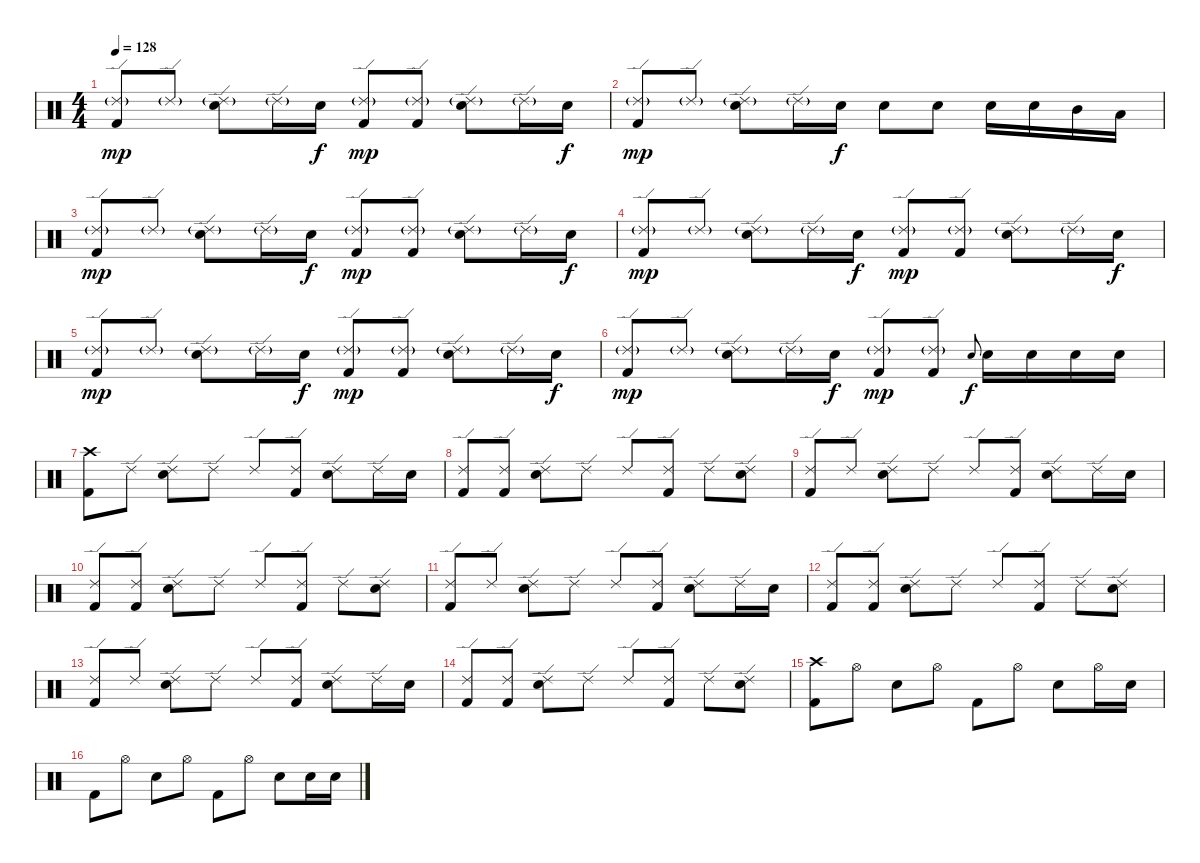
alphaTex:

\track "" {solo instrument percussion}
\staff {score}
\articulation defaults
\ts (4 4)
\tempo 128
\clef neutral
\ks c
("Ride (edge) 2"{g} "Kick (hit) 2").8{dy mp} "Ride (edge) 2"{g}.8 ("Ride (edge) 2"{g} "Snare (hit) 2").8 "Ride (edge) 2"{g}.16 "Snare (hit) 2".16{dy f} ("Ride (edge) 2"{g} "Kick (hit) 2").8{dy mp} ("Ride (edge) 2"{g} "Kick (hit) 2").8 ("Ride (edge) 2"{g} "Snare (hit) 2").8 "Ride (edge) 2"{g}.16 "Snare (hit) 2".16{dy f} |
("Ride (edge) 2"{g} "Kick (hit) 2").8{dy mp} "Ride (edge) 2"{g}.8 ("Ride (edge) 2"{g} "Snare (hit) 2").8 "Ride (edge) 2"{g}.16 "Snare (hit) 2".16{dy f} "Snare (hit) 2".8 "Snare (hit) 2".8 "Snare (hit) 2".16 "Snare (hit) 2".16 "Mid Tom (hit)".16 "Low Tom (hit)".16 |
("Ride (edge) 2"{g} "Kick (hit) 2").8{dy mp} "Ride (edge) 2"{g}.8 ("Ride (edge) 2"{g} "Snare (hit) 2").8 "Ride (edge) 2"{g}.16 "Snare (hit) 2".16{dy f} ("Ride (edge) 2"{g} "Kick (hit) 2").8{dy mp} ("Ride (edge) 2"{g} "Kick (hit) 2").8 ("Ride (edge) 2"{g} "Snare (hit) 2").8 "Ride (edge) 2"{g}.16 "Snare (hit) 2".16{dy f} |
("Ride (edge) 2"{g} "Kick (hit) 2").8{dy mp} "Ride (edge) 2"{g}.8 ("Ride (edge) 2"{g} "Snare (hit) 2").8 "Ride (edge) 2"{g}.16 "Snare (hit) 2".16{dy f} ("Ride (edge) 2"{g} "Kick (hit) 2").8{dy mp} ("Ride (edge) 2"{g} "Kick (hit) 2").8 ("Ride (edge) 2"{g} "Snare (hit) 2").8 "Ride (edge) 2"{g}.16 "Snare (hit) 2".16{dy f} |
("Ride (edge) 2"{g} "Kick (hit) 2").8{dy mp} "Ride (edge) 2"{g}.8 ("Ride (edge) 2"{g} "Snare (hit) 2").8 "Ride (edge) 2"{g}.16 "Snare (hit) 2".16{dy f} ("Ride (edge) 2"{g} "Kick (hit) 2").8{dy mp} ("Ride (edge) 2"{g} "Kick (hit) 2").8 ("Ride (edge) 2"{g} "Snare (hit) 2").8 "Ride (edge) 2"{g}.16 "Snare (hit) 2".16{dy f} |
("Ride (edge) 2"{g} "Kick (hit) 2").8{dy mp} "Ride (edge) 2"{g}.8 ("Ride (edge) 2"{g} "Snare (hit) 2").8 "Ride (edge) 2"{g}.16 "Snare (hit) 2".16{dy f} ("Ride (edge) 2"{g} "Kick (hit) 2").8{dy mp} ("Ride (edge) 2"{g} "Kick (hit) 2").8 "Snare (hit) 2".8{gr onbeat dy f} "Snare (hit) 2".16 "Snare (hit) 2".16 "Snare (hit) 2".16 "Snare (hit) 2".16 |
("Crash high (hit)" "Kick (hit) 2").8 "Ride (edge) 2".8 ("Ride (edge) 2" "Snare (hit) 2").8 "Ride (edge) 2".8 "Ride (edge) 2".8 ("Ride (edge) 2" "Kick (hit) 2").8 ("Ride (edge) 2" "Snare (hit) 2").8 "Ride (edge) 2".16 "Snare (hit) 2".16 |
("Ride (edge) 2" "Kick (hit) 2").8 ("Ride (edge) 2" "Kick (hit) 2").8 ("Ride (edge) 2" "Snare (hit) 2").8 "Ride (edge) 2".8 "Ride (edge) 2".8 ("Ride (edge) 2" "Kick (hit) 2").8 "Ride (edge) 2".8 ("Ride (edge) 2" "Snare (hit) 2").8 |
("Ride (edge) 2" "Kick (hit) 2").8 "Ride (edge) 2".8 ("Ride (edge) 2" "Snare (hit) 2").8 "Ride (edge) 2".8 "Ride (edge) 2".8 ("Ride (edge) 2" "Kick (hit) 2").8 ("Ride (edge) 2" "Snare (hit) 2").8 "Ride (edge) 2".16 "Snare (hit) 2".16 |
("Ride (edge) 2" "Kick (hit) 2").8 ("Ride (edge) 2" "Kick (hit) 2").8 ("Ride (edge) 2" "Snare (hit) 2").8 "Ride (edge) 2".8 "Ride (edge) 2".8 ("Ride (edge) 2" "Kick (hit) 2").8 "Ride (edge) 2".8 ("Ride (edge) 2" "Snare (hit) 2").8 |
("Ride (edge) 2" "Kick (hit) 2").8 "Ride (edge) 2".8 ("Ride (edge) 2" "Snare (hit) 2").8 "Ride (edge) 2".8 "Ride (edge) 2".8 ("Ride (edge) 2" "Kick (hit) 2").8 ("Ride (edge) 2" "Snare (hit) 2").8 "Ride (edge) 2".16 "Snare (hit) 2".16 |
("Ride (edge) 2" "Kick (hit) 2").8 ("Ride (edge) 2" "Kick (hit) 2").8 ("Ride (edge) 2" "Snare (hit) 2").8 "Ride (edge) 2".8 "Ride (edge) 2".8 ("Ride (edge) 2" "Kick (hit) 2").8 "Ride (edge) 2".8 ("Ride (edge) 2" "Snare (hit) 2").8 |
("Ride (edge) 2" "Kick (hit) 2").8 "Ride (edge) 2".8 ("Ride (edge) 2" "Snare (hit) 2").8 "Ride (edge) 2".8 "Ride (edge) 2".8 ("Ride (edge) 2" "Kick (hit) 2").8 ("Ride (edge) 2" "Snare (hit) 2").8 "Ride (edge) 2".16 "Snare (hit) 2".16 |
("Ride (edge) 2" "Kick (hit) 2").8 ("Ride (edge) 2" "Kick (hit) 2").8 ("Ride (edge) 2" "Snare (hit) 2").8 "Ride (edge) 2".8 "Ride (edge) 2".8 ("Ride (edge) 2" "Kick (hit) 2").8 "Ride (edge) 2".8 ("Ride (edge) 2" "Snare (hit) 2").8 |
("Crash high (hit)" "Kick (hit) 2").8 "Hi-Hat (open)".8 "Snare (hit) 2".8 "Hi-Hat (open)".8 "Kick (hit) 2".8 "Hi-Hat (open)".8 "Snare (hit) 2".8 "Hi-Hat (open)".16 "Snare (hit) 2".16 |
"Kick (hit) 2".8 "Hi-Hat (open)".8 "Snare (hit) 2".8 "Hi-Hat (open)".8 "Kick (hit) 2".8 "Hi-Hat (open)".8 "Snare (hit) 2".8 "Snare (hit) 2".16 "Snare (hit) 2".16
